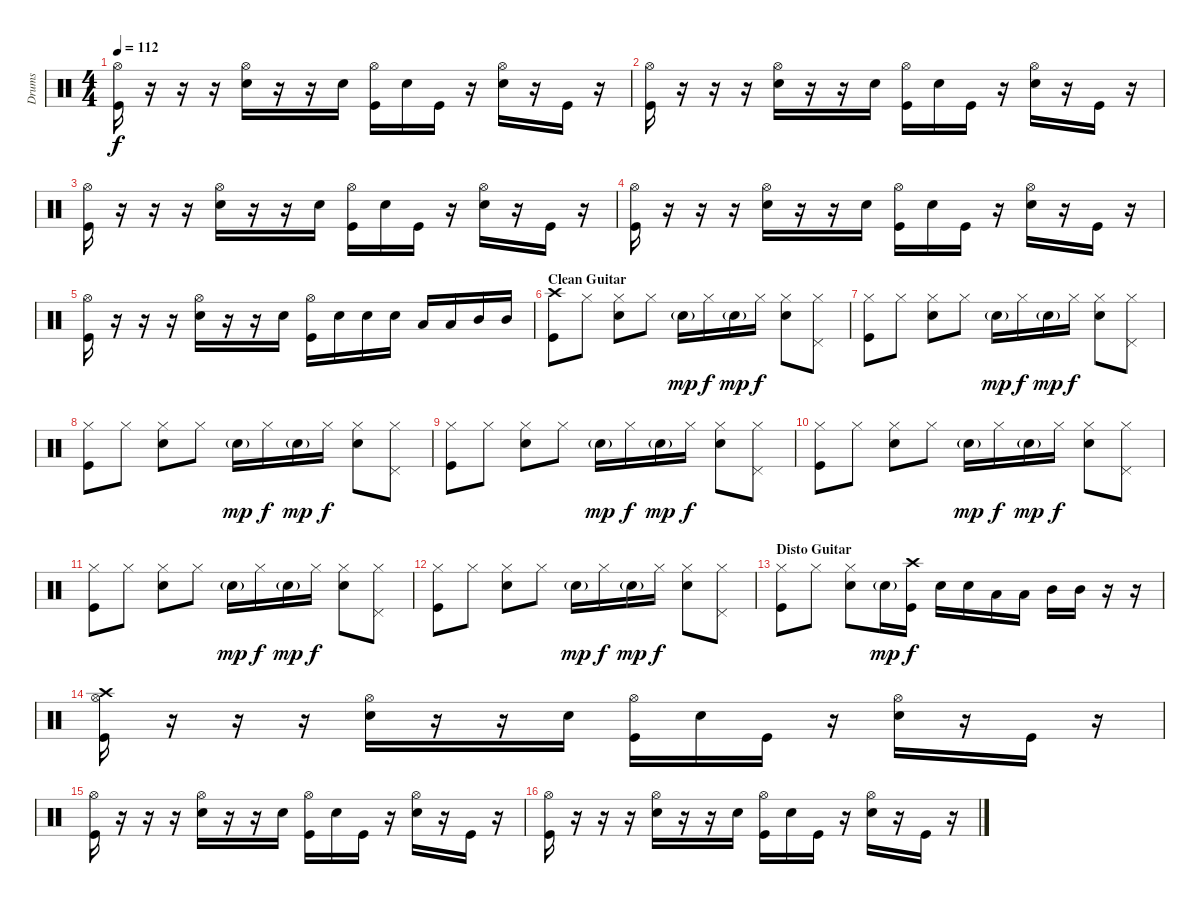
\track ("Drums" "Drums") {instrument percussion}
\staff {score}
\articulation defaults
\ts (4 4)
\tempo 112
\clef neutral
\ks c
("Hi-Hat (open)" "Kick (hit)").16{dy f} r.16 r.16 r.16 ("Hi-Hat (open)" "Electric Snare (hit)").16 r.16 r.16 "Electric Snare (hit)".16 ("Hi-Hat (open)" "Kick (hit)").16 "Electric Snare (hit)".16 "Kick (hit)".16 r.16 ("Hi-Hat (open)" "Electric Snare (hit)").16 r.16 "Kick (hit)".16 r.16 |
("Hi-Hat (open)" "Kick (hit)").16 r.16 r.16 r.16 ("Hi-Hat (open)" "Electric Snare (hit)").16 r.16 r.16 "Electric Snare (hit)".16 ("Hi-Hat (open)" "Kick (hit)").16 "Electric Snare (hit)".16 "Kick (hit)".16 r.16 ("Hi-Hat (open)" "Electric Snare (hit)").16 r.16 "Kick (hit)".16 r.16 |
("Hi-Hat (open)" "Kick (hit)").16 r.16 r.16 r.16 ("Hi-Hat (open)" "Electric Snare (hit)").16 r.16 r.16 "Electric Snare (hit)".16 ("Hi-Hat (open)" "Kick (hit)").16 "Electric Snare (hit)".16 "Kick (hit)".16 r.16 ("Hi-Hat (open)" "Electric Snare (hit)").16 r.16 "Kick (hit)".16 r.16 |
("Hi-Hat (open)" "Kick (hit)").16 r.16 r.16 r.16 ("Hi-Hat (open)" "Electric Snare (hit)").16 r.16 r.16 "Electric Snare (hit)".16 ("Hi-Hat (open)" "Kick (hit)").16 "Electric Snare (hit)".16 "Kick (hit)".16 r.16 ("Hi-Hat (open)" "Electric Snare (hit)").16 r.16 "Kick (hit)".16 r.16 |
("Hi-Hat (open)" "Kick (hit)").16 r.16 r.16 r.16 ("Hi-Hat (open)" "Electric Snare (hit)").16 r.16 r.16 "Electric Snare (hit)".16 ("Hi-Hat (open)" "Kick (hit)").16 "Electric Snare (hit)".16 "Electric Snare (hit)".16 "Electric Snare (hit)".16 "Low Tom (hit)".16 "Low Tom (hit)".16 "Mid Tom (hit)".16 "Mid Tom (hit)".16 |
\section ("" "Clean Guitar")
("Crash high (hit)" "Kick (hit)").8 "Hi-Hat (closed)".8 ("Hi-Hat (closed)" "Electric Snare (hit)").8 "Hi-Hat (closed)".8 "Electric Snare (hit)"{g}.16{dy mp} "Hi-Hat (closed)".16{dy f} "Electric Snare (hit)"{g}.16{dy mp} "Hi-Hat (closed)".16{dy f} ("Hi-Hat (closed)" "Electric Snare (hit)").8 ("Hi-Hat (closed)" "Pedal Hi-Hat (hit)").8 |
("Hi-Hat (closed)" "Kick (hit)").8 "Hi-Hat (closed)".8 ("Hi-Hat (closed)" "Electric Snare (hit)").8 "Hi-Hat (closed)".8 "Electric Snare (hit)"{g}.16{dy mp} "Hi-Hat (closed)".16{dy f} "Electric Snare (hit)"{g}.16{dy mp} "Hi-Hat (closed)".16{dy f} ("Hi-Hat (closed)" "Electric Snare (hit)").8 ("Hi-Hat (closed)" "Pedal Hi-Hat (hit)").8 |
("Hi-Hat (closed)" "Kick (hit)").8 "Hi-Hat (closed)".8 ("Hi-Hat (closed)" "Electric Snare (hit)").8 "Hi-Hat (closed)".8 "Electric Snare (hit)"{g}.16{dy mp} "Hi-Hat (closed)".16{dy f} "Electric Snare (hit)"{g}.16{dy mp} "Hi-Hat (closed)".16{dy f} ("Hi-Hat (closed)" "Electric Snare (hit)").8 ("Hi-Hat (closed)" "Pedal Hi-Hat (hit)").8 |
("Hi-Hat (closed)" "Kick (hit)").8 "Hi-Hat (closed)".8 ("Hi-Hat (closed)" "Electric Snare (hit)").8 "Hi-Hat (closed)".8 "Electric Snare (hit)"{g}.16{dy mp} "Hi-Hat (closed)".16{dy f} "Electric Snare (hit)"{g}.16{dy mp} "Hi-Hat (closed)".16{dy f} ("Hi-Hat (closed)" "Electric Snare (hit)").8 ("Hi-Hat (closed)" "Pedal Hi-Hat (hit)").8 |
("Hi-Hat (closed)" "Kick (hit)").8 "Hi-Hat (closed)".8 ("Hi-Hat (closed)" "Electric Snare (hit)").8 "Hi-Hat (closed)".8 "Electric Snare (hit)"{g}.16{dy mp} "Hi-Hat (closed)".16{dy f} "Electric Snare (hit)"{g}.16{dy mp} "Hi-Hat (closed)".16{dy f} ("Hi-Hat (closed)" "Electric Snare (hit)").8 ("Hi-Hat (closed)" "Pedal Hi-Hat (hit)").8 |
("Hi-Hat (closed)" "Kick (hit)").8 "Hi-Hat (closed)".8 ("Hi-Hat (closed)" "Electric Snare (hit)").8 "Hi-Hat (closed)".8 "Electric Snare (hit)"{g}.16{dy mp} "Hi-Hat (closed)".16{dy f} "Electric Snare (hit)"{g}.16{dy mp} "Hi-Hat (closed)".16{dy f} ("Hi-Hat (closed)" "Electric Snare (hit)").8 ("Hi-Hat (closed)" "Pedal Hi-Hat (hit)").8 |
("Hi-Hat (closed)" "Kick (hit)").8 "Hi-Hat (closed)".8 ("Hi-Hat (closed)" "Electric Snare (hit)").8 "Hi-Hat (closed)".8 "Electric Snare (hit)"{g}.16{dy mp} "Hi-Hat (closed)".16{dy f} "Electric Snare (hit)"{g}.16{dy mp} "Hi-Hat (closed)".16{dy f} ("Hi-Hat (closed)" "Electric Snare (hit)").8 ("Hi-Hat (closed)" "Pedal Hi-Hat (hit)").8 |
\section ("" "Disto Guitar")
("Hi-Hat (closed)" "Kick (hit)").8 "Hi-Hat (closed)".8 ("Hi-Hat (closed)" "Electric Snare (hit)").8 "Electric Snare (hit)"{g}.16{dy mp} ("Crash high (hit)" "Kick (hit)").16{dy f} "Electric Snare (hit)".16 "Electric Snare (hit)".16 "Low Tom (hit)".16 "Low Tom (hit)".16 "Mid Tom (hit)".16 "Mid Tom (hit)".16 r.16 r.16 |
("Hi-Hat (open)" "Kick (hit)" "Crash high (hit)").16 r.16 r.16 r.16 ("Hi-Hat (open)" "Electric Snare (hit)").16 r.16 r.16 "Electric Snare (hit)".16 ("Hi-Hat (open)" "Kick (hit)").16 "Electric Snare (hit)".16 "Kick (hit)".16 r.16 ("Hi-Hat (open)" "Electric Snare (hit)").16 r.16 "Kick (hit)".16 r.16 |
("Hi-Hat (open)" "Kick (hit)").16 r.16 r.16 r.16 ("Hi-Hat (open)" "Electric Snare (hit)").16 r.16 r.16 "Electric Snare (hit)".16 ("Hi-Hat (open)" "Kick (hit)").16 "Electric Snare (hit)".16 "Kick (hit)".16 r.16 ("Hi-Hat (open)" "Electric Snare (hit)").16 r.16 "Kick (hit)".16 r.16 |
("Hi-Hat (open)" "Kick (hit)").16 r.16 r.16 r.16 ("Hi-Hat (open)" "Electric Snare (hit)").16 r.16 r.16 "Electric Snare (hit)".16 ("Hi-Hat (open)" "Kick (hit)").16 "Electric Snare (hit)".16 "Kick (hit)".16 r.16 ("Hi-Hat (open)" "Electric Snare (hit)").16 r.16 "Kick (hit)".16 r.16
